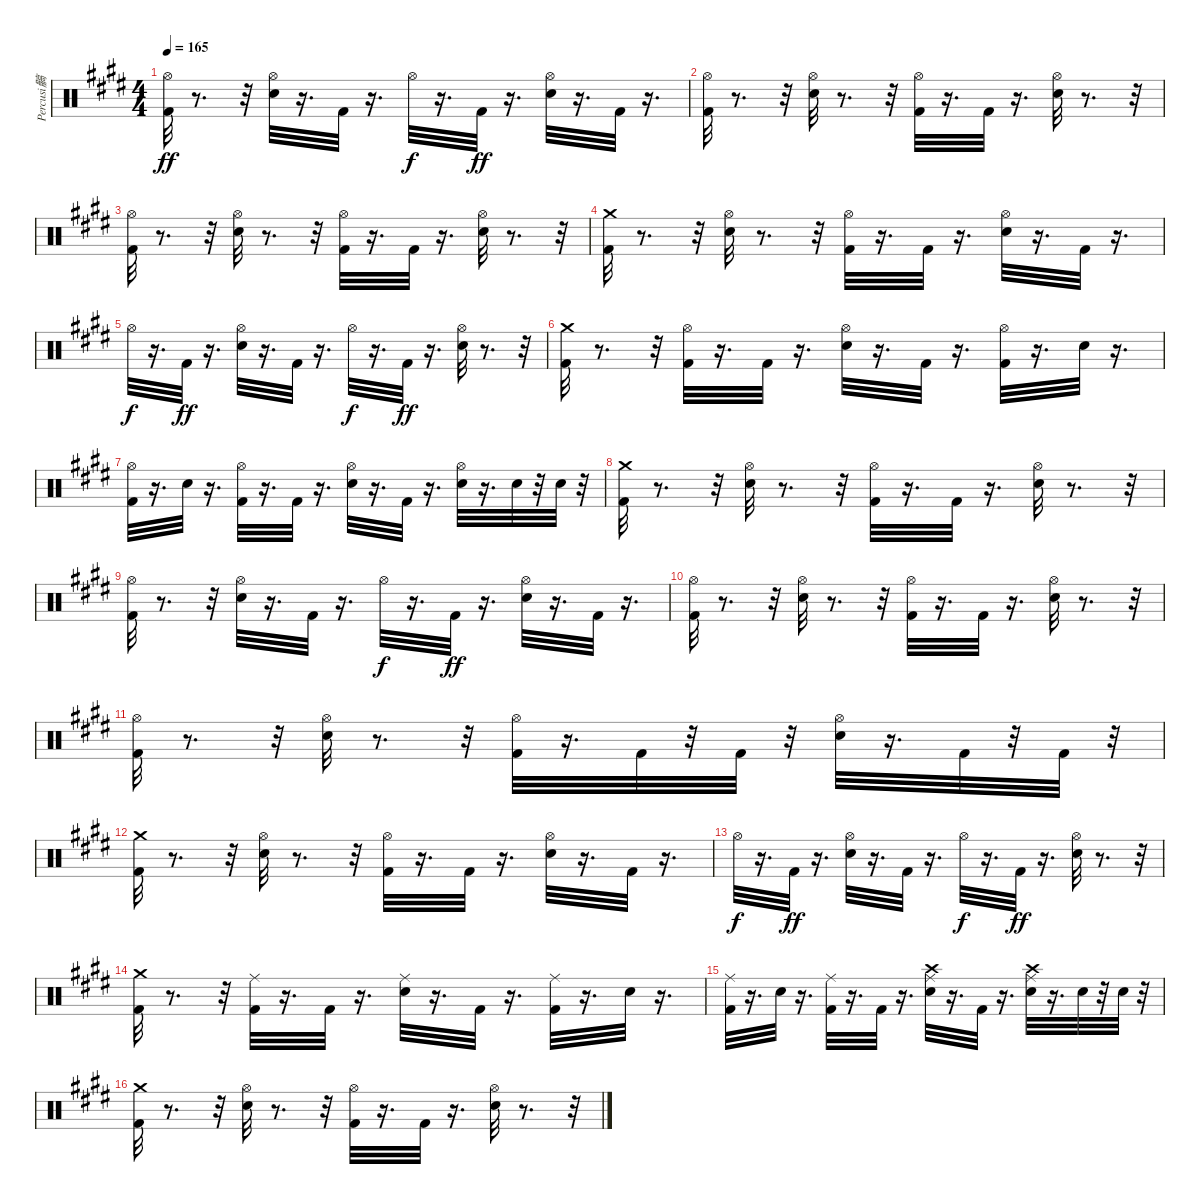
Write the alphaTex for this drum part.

\track ("Percusi髇" "Percusi髇") {instrument percussion}
\staff {score}
\articulation defaults
\ts (4 4)
\tempo 165
\clef neutral
\ks e
("Kick (hit) 2" "Hi-Hat (open)").32{dy ff} r.8{d} r.32 ("Electric Snare (hit)" "Hi-Hat (open)").32 r.16{d} "Kick (hit) 2".32 r.16{d} "Hi-Hat (open)".32{dy f} r.16{d} "Kick (hit) 2".32{dy ff} r.16{d} ("Electric Snare (hit)" "Hi-Hat (open)").32 r.16{d} "Kick (hit) 2".32 r.16{d} |
("Hi-Hat (open)" "Kick (hit) 2").32 r.8{d} r.32 ("Electric Snare (hit)" "Hi-Hat (open)").32 r.8{d} r.32 ("Kick (hit) 2" "Hi-Hat (open)").32 r.16{d} "Kick (hit) 2".32 r.16{d} ("Electric Snare (hit)" "Hi-Hat (open)").32 r.8{d} r.32 |
("Kick (hit) 2" "Hi-Hat (open)").32 r.8{d} r.32 ("Electric Snare (hit)" "Hi-Hat (open)").32 r.8{d} r.32 ("Kick (hit) 2" "Hi-Hat (open)").32 r.16{d} "Kick (hit) 2".32 r.16{d} ("Electric Snare (hit)" "Hi-Hat (open)").32 r.8{d} r.32 |
("Crash medium (hit)" "Kick (hit) 2").32 r.8{d} r.32 ("Electric Snare (hit)" "Hi-Hat (open)").32 r.8{d} r.32 ("Kick (hit) 2" "Hi-Hat (open)").32 r.16{d} "Kick (hit) 2".32 r.16{d} ("Electric Snare (hit)" "Hi-Hat (open)").32 r.16{d} "Kick (hit) 2".32 r.16{d} |
"Hi-Hat (open)".32{dy f} r.16{d} "Kick (hit) 2".32{dy ff} r.16{d} ("Electric Snare (hit)" "Hi-Hat (open)").32 r.16{d} "Kick (hit) 2".32 r.16{d} "Hi-Hat (open)".32{dy f} r.16{d} "Kick (hit) 2".32{dy ff} r.16{d} ("Electric Snare (hit)" "Hi-Hat (open)").32 r.8{d} r.32 |
("Crash medium (hit)" "Kick (hit) 2").32 r.8{d} r.32 ("Kick (hit) 2" "Hi-Hat (open)").32 r.16{d} "Kick (hit) 2".32 r.16{d} ("Electric Snare (hit)" "Hi-Hat (open)").32 r.16{d} "Kick (hit) 2".32 r.16{d} ("Kick (hit) 2" "Hi-Hat (open)").32 r.16{d} "Electric Snare (hit)".32 r.16{d} |
("Kick (hit) 2" "Hi-Hat (open)").32 r.16{d} "Electric Snare (hit)".32 r.16{d} ("Kick (hit) 2" "Hi-Hat (open)").32 r.16{d} "Kick (hit) 2".32 r.16{d} ("Electric Snare (hit)" "Hi-Hat (open)").32 r.16{d} "Kick (hit) 2".32 r.16{d} ("Electric Snare (hit)" "Hi-Hat (open)").32 r.16{d} "Electric Snare (hit)".32 r.32 "Electric Snare (hit)".32 r.32 |
("Crash medium (hit)" "Kick (hit) 2").32 r.8{d} r.32 ("Electric Snare (hit)" "Hi-Hat (open)").32 r.8{d} r.32 ("Kick (hit) 2" "Hi-Hat (open)").32 r.16{d} "Kick (hit) 2".32 r.16{d} ("Electric Snare (hit)" "Hi-Hat (open)").32 r.8{d} r.32 |
("Kick (hit) 2" "Hi-Hat (open)").32 r.8{d} r.32 ("Electric Snare (hit)" "Hi-Hat (open)").32 r.16{d} "Kick (hit) 2".32 r.16{d} "Hi-Hat (open)".32{dy f} r.16{d} "Kick (hit) 2".32{dy ff} r.16{d} ("Electric Snare (hit)" "Hi-Hat (open)").32 r.16{d} "Kick (hit) 2".32 r.16{d} |
("Hi-Hat (open)" "Kick (hit) 2").32 r.8{d} r.32 ("Electric Snare (hit)" "Hi-Hat (open)").32 r.8{d} r.32 ("Kick (hit) 2" "Hi-Hat (open)").32 r.16{d} "Kick (hit) 2".32 r.16{d} ("Electric Snare (hit)" "Hi-Hat (open)").32 r.8{d} r.32 |
("Kick (hit) 2" "Hi-Hat (open)").32 r.8{d} r.32 ("Electric Snare (hit)" "Hi-Hat (open)").32 r.8{d} r.32 ("Kick (hit) 2" "Hi-Hat (open)").32 r.16{d} "Kick (hit) 2".32 r.32 "Kick (hit) 2".32 r.32 ("Electric Snare (hit)" "Hi-Hat (open)").32 r.16{d} "Kick (hit) 2".32 r.32 "Kick (hit) 2".32 r.32 |
("Crash medium (hit)" "Kick (hit) 2").32 r.8{d} r.32 ("Electric Snare (hit)" "Hi-Hat (open)").32 r.8{d} r.32 ("Kick (hit) 2" "Hi-Hat (open)").32 r.16{d} "Kick (hit) 2".32 r.16{d} ("Electric Snare (hit)" "Hi-Hat (open)").32 r.16{d} "Kick (hit) 2".32 r.16{d} |
"Hi-Hat (open)".32{dy f} r.16{d} "Kick (hit) 2".32{dy ff} r.16{d} ("Electric Snare (hit)" "Hi-Hat (open)").32 r.16{d} "Kick (hit) 2".32 r.16{d} "Hi-Hat (open)".32{dy f} r.16{d} "Kick (hit) 2".32{dy ff} r.16{d} ("Electric Snare (hit)" "Hi-Hat (open)").32 r.8{d} r.32 |
("Crash medium (hit)" "Kick (hit) 2").32 r.8{d} r.32 ("Kick (hit) 2" "Ride (middle)").32 r.16{d} "Kick (hit) 2".32 r.16{d} ("Electric Snare (hit)" "Ride (middle)").32 r.16{d} "Kick (hit) 2".32 r.16{d} ("Kick (hit) 2" "Ride (middle)").32 r.16{d} "Electric Snare (hit)".32 r.16{d} |
("Kick (hit) 2" "Ride (middle)").32 r.16{d} "Electric Snare (hit)".32 r.16{d} ("Kick (hit) 2" "Ride (middle)").32 r.16{d} "Kick (hit) 2".32 r.16{d} ("Crash high (hit)" "Electric Snare (hit)" "Ride (middle)").32 r.16{d} "Kick (hit) 2".32 r.16{d} ("Crash high (hit)" "Electric Snare (hit)" "Ride (middle)").32 r.16{d} "Electric Snare (hit)".32 r.32 "Electric Snare (hit)".32 r.32 |
("Crash medium (hit)" "Kick (hit) 2").32 r.8{d} r.32 ("Electric Snare (hit)" "Hi-Hat (open)").32 r.8{d} r.32 ("Kick (hit) 2" "Hi-Hat (open)").32 r.16{d} "Kick (hit) 2".32 r.16{d} ("Electric Snare (hit)" "Hi-Hat (open)").32 r.8{d} r.32
